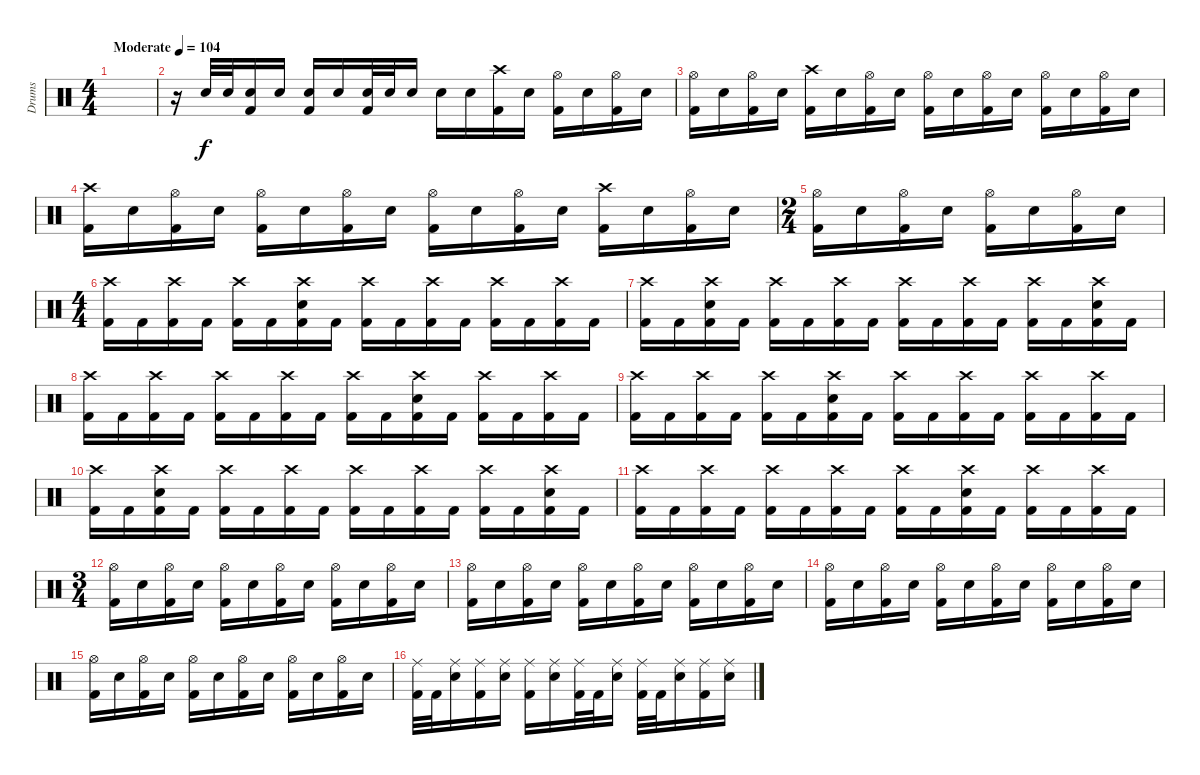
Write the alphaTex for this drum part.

\track ("Drums" "Drums") {instrument percussion}
\staff {score}
\articulation defaults
\ts (4 4)
\tempo (104 "Moderate")
\clef neutral
\ks c
|
r.16 "Snare (hit) 2".32 "Snare (hit) 2".32 ("Snare (hit) 2" "Kick (hit) 2").16 "Snare (hit) 2".16 ("Snare (hit) 2" "Kick (hit) 2").16 "Snare (hit) 2".16 ("Snare (hit) 2" "Kick (hit) 2").32 "Snare (hit) 2".32 "Snare (hit) 2".16 "Snare (hit) 2".16 "Snare (hit) 2".16 ("Crash high (hit)" "Kick (hit) 2").16 "Snare (hit) 2".16 ("Hi-Hat (open)" "Kick (hit) 2").16 "Snare (hit) 2".16 ("Hi-Hat (open)" "Kick (hit) 2").16 "Snare (hit) 2".16 |
("Hi-Hat (open)" "Kick (hit) 2").16 "Snare (hit) 2".16 ("Hi-Hat (open)" "Kick (hit) 2").16 "Snare (hit) 2".16 ("Crash high (hit)" "Kick (hit) 2").16 "Snare (hit) 2".16 ("Hi-Hat (open)" "Kick (hit) 2").16 "Snare (hit) 2".16 ("Hi-Hat (open)" "Kick (hit) 2").16 "Snare (hit) 2".16 ("Hi-Hat (open)" "Kick (hit) 2").16 "Snare (hit) 2".16 ("Hi-Hat (open)" "Kick (hit) 2").16 "Snare (hit) 2".16 ("Hi-Hat (open)" "Kick (hit) 2").16 "Snare (hit) 2".16 |
("Crash high (hit)" "Kick (hit) 2").16 "Snare (hit) 2".16 ("Hi-Hat (open)" "Kick (hit) 2").16 "Snare (hit) 2".16 ("Hi-Hat (open)" "Kick (hit) 2").16 "Snare (hit) 2".16 ("Hi-Hat (open)" "Kick (hit) 2").16 "Snare (hit) 2".16 ("Hi-Hat (open)" "Kick (hit) 2").16 "Snare (hit) 2".16 ("Hi-Hat (open)" "Kick (hit) 2").16 "Snare (hit) 2".16 ("Crash high (hit)" "Kick (hit) 2").16 "Snare (hit) 2".16 ("Hi-Hat (open)" "Kick (hit) 2").16 "Snare (hit) 2".16 |
\ts (2 4)
("Hi-Hat (open)" "Kick (hit) 2").16 "Snare (hit) 2".16 ("Hi-Hat (open)" "Kick (hit) 2").16 "Snare (hit) 2".16 ("Hi-Hat (open)" "Kick (hit) 2").16 "Snare (hit) 2".16 ("Hi-Hat (open)" "Kick (hit) 2").16 "Snare (hit) 2".16 |
\ts (4 4)
("Crash high (hit)" "Kick (hit) 2").16 "Kick (hit) 2".16 ("Crash high (hit)" "Kick (hit) 2").16 "Kick (hit) 2".16 ("Crash high (hit)" "Kick (hit) 2").16 "Kick (hit) 2".16 ("Crash high (hit)" "Snare (hit) 2" "Kick (hit) 2").16 "Kick (hit) 2".16 ("Crash high (hit)" "Kick (hit) 2").16 "Kick (hit) 2".16 ("Crash high (hit)" "Kick (hit) 2").16 "Kick (hit) 2".16 ("Crash high (hit)" "Kick (hit) 2").16 "Kick (hit) 2".16 ("Crash high (hit)" "Kick (hit) 2").16 "Kick (hit) 2".16 |
("Crash high (hit)" "Kick (hit) 2").16 "Kick (hit) 2".16 ("Crash high (hit)" "Snare (hit) 2" "Kick (hit) 2").16 "Kick (hit) 2".16 ("Crash high (hit)" "Kick (hit) 2").16 "Kick (hit) 2".16 ("Crash high (hit)" "Kick (hit) 2").16 "Kick (hit) 2".16 ("Crash high (hit)" "Kick (hit) 2").16 "Kick (hit) 2".16 ("Crash high (hit)" "Kick (hit) 2").16 "Kick (hit) 2".16 ("Crash high (hit)" "Kick (hit) 2").16 "Kick (hit) 2".16 ("Crash high (hit)" "Snare (hit) 2" "Kick (hit) 2").16 "Kick (hit) 2".16 |
("Crash high (hit)" "Kick (hit) 2").16 "Kick (hit) 2".16 ("Crash high (hit)" "Kick (hit) 2").16 "Kick (hit) 2".16 ("Crash high (hit)" "Kick (hit) 2").16 "Kick (hit) 2".16 ("Crash high (hit)" "Kick (hit) 2").16 "Kick (hit) 2".16 ("Crash high (hit)" "Kick (hit) 2").16 "Kick (hit) 2".16 ("Crash high (hit)" "Snare (hit) 2" "Kick (hit) 2").16 "Kick (hit) 2".16 ("Crash high (hit)" "Kick (hit) 2").16 "Kick (hit) 2".16 ("Crash high (hit)" "Kick (hit) 2").16 "Kick (hit) 2".16 |
("Crash high (hit)" "Kick (hit) 2").16 "Kick (hit) 2".16 ("Crash high (hit)" "Kick (hit) 2").16 "Kick (hit) 2".16 ("Crash high (hit)" "Kick (hit) 2").16 "Kick (hit) 2".16 ("Crash high (hit)" "Snare (hit) 2" "Kick (hit) 2").16 "Kick (hit) 2".16 ("Crash high (hit)" "Kick (hit) 2").16 "Kick (hit) 2".16 ("Crash high (hit)" "Kick (hit) 2").16 "Kick (hit) 2".16 ("Crash high (hit)" "Kick (hit) 2").16 "Kick (hit) 2".16 ("Crash high (hit)" "Kick (hit) 2").16 "Kick (hit) 2".16 |
("Crash high (hit)" "Kick (hit) 2").16 "Kick (hit) 2".16 ("Crash high (hit)" "Snare (hit) 2" "Kick (hit) 2").16 "Kick (hit) 2".16 ("Crash high (hit)" "Kick (hit) 2").16 "Kick (hit) 2".16 ("Crash high (hit)" "Kick (hit) 2").16 "Kick (hit) 2".16 ("Crash high (hit)" "Kick (hit) 2").16 "Kick (hit) 2".16 ("Crash high (hit)" "Kick (hit) 2").16 "Kick (hit) 2".16 ("Crash high (hit)" "Kick (hit) 2").16 "Kick (hit) 2".16 ("Crash high (hit)" "Snare (hit) 2" "Kick (hit) 2").16 "Kick (hit) 2".16 |
("Crash high (hit)" "Kick (hit) 2").16 "Kick (hit) 2".16 ("Crash high (hit)" "Kick (hit) 2").16 "Kick (hit) 2".16 ("Crash high (hit)" "Kick (hit) 2").16 "Kick (hit) 2".16 ("Crash high (hit)" "Kick (hit) 2").16 "Kick (hit) 2".16 ("Crash high (hit)" "Kick (hit) 2").16 "Kick (hit) 2".16 ("Crash high (hit)" "Snare (hit) 2" "Kick (hit) 2").16 "Kick (hit) 2".16 ("Crash high (hit)" "Kick (hit) 2").16 "Kick (hit) 2".16 ("Crash high (hit)" "Kick (hit) 2").16 "Kick (hit) 2".16 |
\ts (3 4)
("Hi-Hat (open)" "Kick (hit) 2").16 "Snare (hit) 2".16 ("Hi-Hat (open)" "Kick (hit) 2").16 "Snare (hit) 2".16 ("Hi-Hat (open)" "Kick (hit) 2").16 "Snare (hit) 2".16 ("Hi-Hat (open)" "Kick (hit) 2").16 "Snare (hit) 2".16 ("Hi-Hat (open)" "Kick (hit) 2").16 "Snare (hit) 2".16 ("Hi-Hat (open)" "Kick (hit) 2").16 "Snare (hit) 2".16 |
("Hi-Hat (open)" "Kick (hit) 2").16 "Snare (hit) 2".16 ("Hi-Hat (open)" "Kick (hit) 2").16 "Snare (hit) 2".16 ("Hi-Hat (open)" "Kick (hit) 2").16 "Snare (hit) 2".16 ("Hi-Hat (open)" "Kick (hit) 2").16 "Snare (hit) 2".16 ("Hi-Hat (open)" "Kick (hit) 2").16 "Snare (hit) 2".16 ("Hi-Hat (open)" "Kick (hit) 2").16 "Snare (hit) 2".16 |
("Hi-Hat (open)" "Kick (hit) 2").16 "Snare (hit) 2".16 ("Hi-Hat (open)" "Kick (hit) 2").16 "Snare (hit) 2".16 ("Hi-Hat (open)" "Kick (hit) 2").16 "Snare (hit) 2".16 ("Hi-Hat (open)" "Kick (hit) 2").16 "Snare (hit) 2".16 ("Hi-Hat (open)" "Kick (hit) 2").16 "Snare (hit) 2".16 ("Hi-Hat (open)" "Kick (hit) 2").16 "Snare (hit) 2".16 |
("Hi-Hat (open)" "Kick (hit) 2").16 "Snare (hit) 2".16 ("Hi-Hat (open)" "Kick (hit) 2").16 "Snare (hit) 2".16 ("Hi-Hat (open)" "Kick (hit) 2").16 "Snare (hit) 2".16 ("Hi-Hat (open)" "Kick (hit) 2").16 "Snare (hit) 2".16 ("Hi-Hat (open)" "Kick (hit) 2").16 "Snare (hit) 2".16 ("Hi-Hat (open)" "Kick (hit) 2").16 "Snare (hit) 2".16 |
("Ride (middle)" "Kick (hit) 2").32 "Kick (hit) 2".32 ("Ride (middle)" "Snare (hit) 2").16 ("Ride (middle)" "Kick (hit) 2").16 ("Ride (middle)" "Snare (hit) 2").16 ("Ride (middle)" "Kick (hit) 2").16 ("Ride (middle)" "Snare (hit) 2").16 ("Ride (middle)" "Kick (hit) 2").32 "Kick (hit) 2".32 ("Ride (middle)" "Snare (hit) 2").16 ("Ride (middle)" "Kick (hit) 2").32 "Kick (hit) 2".32 ("Ride (middle)" "Snare (hit) 2").16 ("Ride (middle)" "Kick (hit) 2").16 ("Ride (middle)" "Snare (hit) 2").16
